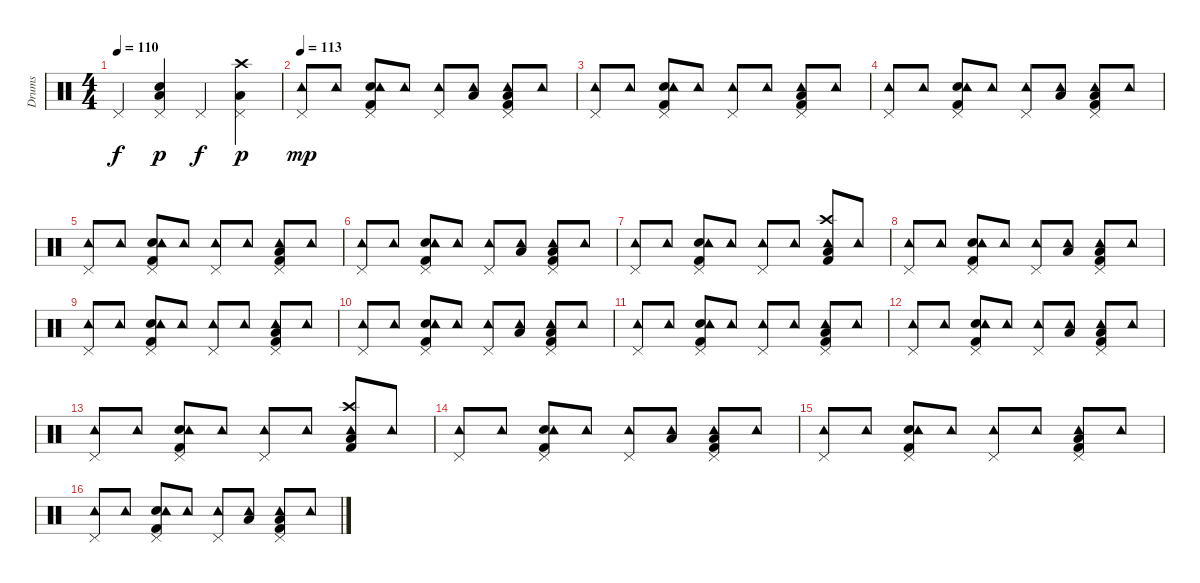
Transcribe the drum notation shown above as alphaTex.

\track ("Drums" "Drums") {instrument percussion}
\staff {score}
\articulation defaults
\ts (4 4)
\tempo 110
\clef neutral
\ks c "Pedal Hi-Hat (hit)".4{dy f}
("Pedal Hi-Hat (hit)" "Snare (hit) 2" "Low Floor Tom (hit)").4{dy p} "Pedal Hi-Hat (hit)".4{dy f} ("Crash high (hit)" "Pedal Hi-Hat (hit)" "Low Floor Tom (hit)").4{dy p} |
\tempo 113
("Pedal Hi-Hat (hit)" "Tambourine (hit)").8{dy mp} "Tambourine (hit)".8 ("Pedal Hi-Hat (hit)" "Kick (hit) 2" "Electric Snare (hit)" "Tambourine (hit)").8 "Tambourine (hit)".8 ("Pedal Hi-Hat (hit)" "Tambourine (hit)").8 ("Low Floor Tom (hit)" "Tambourine (hit)").8 ("Pedal Hi-Hat (hit)" "Kick (hit) 2" "Low Floor Tom (hit)" "Tambourine (hit)").8 "Tambourine (hit)".8 |
("Pedal Hi-Hat (hit)" "Tambourine (hit)").8 "Tambourine (hit)".8 ("Pedal Hi-Hat (hit)" "Kick (hit) 2" "Electric Snare (hit)" "Tambourine (hit)").8 "Tambourine (hit)".8 ("Pedal Hi-Hat (hit)" "Tambourine (hit)").8 "Tambourine (hit)".8 ("Pedal Hi-Hat (hit)" "Kick (hit) 2" "Low Floor Tom (hit)" "Tambourine (hit)").8 "Tambourine (hit)".8 |
("Pedal Hi-Hat (hit)" "Tambourine (hit)").8 "Tambourine (hit)".8 ("Pedal Hi-Hat (hit)" "Kick (hit) 2" "Electric Snare (hit)" "Tambourine (hit)").8 "Tambourine (hit)".8 ("Pedal Hi-Hat (hit)" "Tambourine (hit)").8 ("Low Floor Tom (hit)" "Tambourine (hit)").8 ("Pedal Hi-Hat (hit)" "Kick (hit) 2" "Low Floor Tom (hit)" "Tambourine (hit)").8 "Tambourine (hit)".8 |
("Pedal Hi-Hat (hit)" "Tambourine (hit)").8 "Tambourine (hit)".8 ("Pedal Hi-Hat (hit)" "Kick (hit) 2" "Electric Snare (hit)" "Tambourine (hit)").8 "Tambourine (hit)".8 ("Pedal Hi-Hat (hit)" "Tambourine (hit)").8 "Tambourine (hit)".8 ("Pedal Hi-Hat (hit)" "Kick (hit) 2" "Low Floor Tom (hit)" "Tambourine (hit)").8 "Tambourine (hit)".8 |
("Pedal Hi-Hat (hit)" "Tambourine (hit)").8 "Tambourine (hit)".8 ("Pedal Hi-Hat (hit)" "Kick (hit) 2" "Electric Snare (hit)" "Tambourine (hit)").8 "Tambourine (hit)".8 ("Pedal Hi-Hat (hit)" "Tambourine (hit)").8 ("Low Floor Tom (hit)" "Tambourine (hit)").8 ("Pedal Hi-Hat (hit)" "Kick (hit) 2" "Low Floor Tom (hit)" "Tambourine (hit)").8 "Tambourine (hit)".8 |
("Pedal Hi-Hat (hit)" "Tambourine (hit)").8 "Tambourine (hit)".8 ("Pedal Hi-Hat (hit)" "Kick (hit) 2" "Electric Snare (hit)" "Tambourine (hit)").8 "Tambourine (hit)".8 ("Pedal Hi-Hat (hit)" "Tambourine (hit)").8 "Tambourine (hit)".8 ("Crash high (hit)" "Kick (hit) 2" "Low Floor Tom (hit)" "Tambourine (hit)").8 "Tambourine (hit)".8 |
("Pedal Hi-Hat (hit)" "Tambourine (hit)").8 "Tambourine (hit)".8 ("Pedal Hi-Hat (hit)" "Kick (hit) 2" "Electric Snare (hit)" "Tambourine (hit)").8 "Tambourine (hit)".8 ("Pedal Hi-Hat (hit)" "Tambourine (hit)").8 ("Low Floor Tom (hit)" "Tambourine (hit)").8 ("Pedal Hi-Hat (hit)" "Kick (hit) 2" "Low Floor Tom (hit)" "Tambourine (hit)").8 "Tambourine (hit)".8 |
("Pedal Hi-Hat (hit)" "Tambourine (hit)").8 "Tambourine (hit)".8 ("Pedal Hi-Hat (hit)" "Kick (hit) 2" "Electric Snare (hit)" "Tambourine (hit)").8 "Tambourine (hit)".8 ("Pedal Hi-Hat (hit)" "Tambourine (hit)").8 "Tambourine (hit)".8 ("Pedal Hi-Hat (hit)" "Kick (hit) 2" "Low Floor Tom (hit)" "Tambourine (hit)").8 "Tambourine (hit)".8 |
("Pedal Hi-Hat (hit)" "Tambourine (hit)").8 "Tambourine (hit)".8 ("Pedal Hi-Hat (hit)" "Kick (hit) 2" "Electric Snare (hit)" "Tambourine (hit)").8 "Tambourine (hit)".8 ("Pedal Hi-Hat (hit)" "Tambourine (hit)").8 ("Low Floor Tom (hit)" "Tambourine (hit)").8 ("Pedal Hi-Hat (hit)" "Kick (hit) 2" "Low Floor Tom (hit)" "Tambourine (hit)").8 "Tambourine (hit)".8 |
("Pedal Hi-Hat (hit)" "Tambourine (hit)").8 "Tambourine (hit)".8 ("Pedal Hi-Hat (hit)" "Kick (hit) 2" "Electric Snare (hit)" "Tambourine (hit)").8 "Tambourine (hit)".8 ("Pedal Hi-Hat (hit)" "Tambourine (hit)").8 "Tambourine (hit)".8 ("Pedal Hi-Hat (hit)" "Kick (hit) 2" "Low Floor Tom (hit)" "Tambourine (hit)").8 "Tambourine (hit)".8 |
("Pedal Hi-Hat (hit)" "Tambourine (hit)").8 "Tambourine (hit)".8 ("Pedal Hi-Hat (hit)" "Kick (hit) 2" "Electric Snare (hit)" "Tambourine (hit)").8 "Tambourine (hit)".8 ("Pedal Hi-Hat (hit)" "Tambourine (hit)").8 ("Low Floor Tom (hit)" "Tambourine (hit)").8 ("Pedal Hi-Hat (hit)" "Kick (hit) 2" "Low Floor Tom (hit)" "Tambourine (hit)").8 "Tambourine (hit)".8 |
("Pedal Hi-Hat (hit)" "Tambourine (hit)").8 "Tambourine (hit)".8 ("Pedal Hi-Hat (hit)" "Kick (hit) 2" "Electric Snare (hit)" "Tambourine (hit)").8 "Tambourine (hit)".8 ("Pedal Hi-Hat (hit)" "Tambourine (hit)").8 "Tambourine (hit)".8 ("Crash high (hit)" "Kick (hit) 2" "Low Floor Tom (hit)" "Tambourine (hit)").8 "Tambourine (hit)".8 |
("Pedal Hi-Hat (hit)" "Tambourine (hit)").8 "Tambourine (hit)".8 ("Pedal Hi-Hat (hit)" "Kick (hit) 2" "Electric Snare (hit)" "Tambourine (hit)").8 "Tambourine (hit)".8 ("Pedal Hi-Hat (hit)" "Tambourine (hit)").8 ("Low Floor Tom (hit)" "Tambourine (hit)").8 ("Pedal Hi-Hat (hit)" "Kick (hit) 2" "Low Floor Tom (hit)" "Tambourine (hit)").8 "Tambourine (hit)".8 |
("Pedal Hi-Hat (hit)" "Tambourine (hit)").8 "Tambourine (hit)".8 ("Pedal Hi-Hat (hit)" "Kick (hit) 2" "Electric Snare (hit)" "Tambourine (hit)").8 "Tambourine (hit)".8 ("Pedal Hi-Hat (hit)" "Tambourine (hit)").8 "Tambourine (hit)".8 ("Pedal Hi-Hat (hit)" "Kick (hit) 2" "Low Floor Tom (hit)" "Tambourine (hit)").8 "Tambourine (hit)".8 |
("Pedal Hi-Hat (hit)" "Tambourine (hit)").8 "Tambourine (hit)".8 ("Pedal Hi-Hat (hit)" "Kick (hit) 2" "Electric Snare (hit)" "Tambourine (hit)").8 "Tambourine (hit)".8 ("Pedal Hi-Hat (hit)" "Tambourine (hit)").8 ("Low Floor Tom (hit)" "Tambourine (hit)").8 ("Pedal Hi-Hat (hit)" "Kick (hit) 2" "Low Floor Tom (hit)" "Tambourine (hit)").8 "Tambourine (hit)".8
